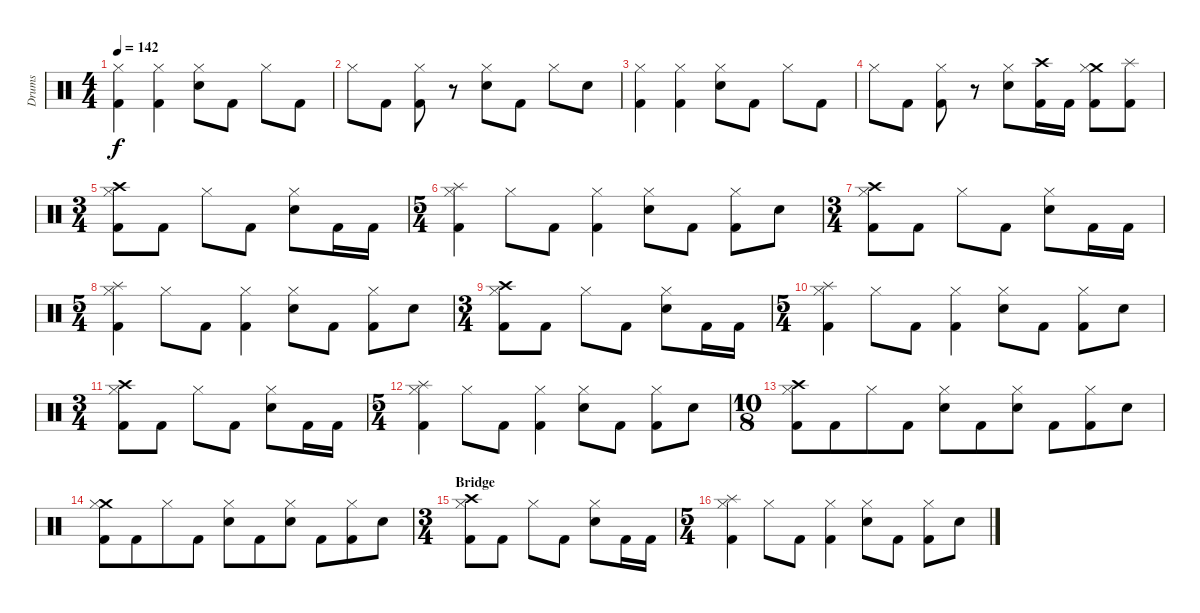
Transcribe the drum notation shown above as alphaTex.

\track ("Drums" "Drums") {instrument percussion}
\staff {score}
\articulation defaults
\ts (4 4)
\tempo 142
\clef neutral
\ks c
("Hi-Hat (closed)" "Kick (hit) 2").4{dy f} ("Hi-Hat (closed)" "Kick (hit) 2").4 ("Hi-Hat (closed)" "Electric Snare (hit)").8 "Kick (hit) 2".8 "Hi-Hat (closed)".8 "Kick (hit) 2".8 |
"Hi-Hat (closed)".8 "Kick (hit) 2".8 ("Hi-Hat (closed)" "Kick (hit) 2").8 r.8 ("Hi-Hat (closed)" "Electric Snare (hit)").8 "Kick (hit) 2".8 "Hi-Hat (closed)".8 "Electric Snare (hit)".8 |
("Hi-Hat (closed)" "Kick (hit) 2").4 ("Hi-Hat (closed)" "Kick (hit) 2").4 ("Hi-Hat (closed)" "Electric Snare (hit)").8 "Kick (hit) 2".8 "Hi-Hat (closed)".8 "Kick (hit) 2".8 |
"Hi-Hat (closed)".8 "Kick (hit) 2".8 ("Hi-Hat (closed)" "Kick (hit) 2").8 r.8 ("Hi-Hat (closed)" "Electric Snare (hit)").8 ("Crash high (hit)" "Kick (hit) 2").16 "Kick (hit) 2".16 ("Crash medium (hit)" "Hi-Hat (closed)" "Kick (hit) 2").8 ("Splash (hit)" "Kick (hit) 2").8 |
\ts (3 4)
("Crash high (hit)" "Hi-Hat (closed)" "Kick (hit) 2").8 "Kick (hit) 2".8 "Hi-Hat (closed)".8 "Kick (hit) 2".8 ("Hi-Hat (closed)" "Electric Snare (hit)").8 "Kick (hit) 2".16 "Kick (hit) 2".16 |
\ts (5 4)
("Splash (hit)" "Hi-Hat (closed)" "Kick (hit) 2").4 "Hi-Hat (closed)".8 "Kick (hit) 2".8 ("Hi-Hat (closed)" "Kick (hit) 2").4 ("Hi-Hat (closed)" "Electric Snare (hit)").8 "Kick (hit) 2".8 ("Hi-Hat (closed)" "Kick (hit) 2").8 "Electric Snare (hit)".8 |
\ts (3 4)
("Crash high (hit)" "Hi-Hat (closed)" "Kick (hit) 2").8 "Kick (hit) 2".8 "Hi-Hat (closed)".8 "Kick (hit) 2".8 ("Hi-Hat (closed)" "Electric Snare (hit)").8 "Kick (hit) 2".16 "Kick (hit) 2".16 |
\ts (5 4)
("Splash (hit)" "Hi-Hat (closed)" "Kick (hit) 2").4 "Hi-Hat (closed)".8 "Kick (hit) 2".8 ("Hi-Hat (closed)" "Kick (hit) 2").4 ("Hi-Hat (closed)" "Electric Snare (hit)").8 "Kick (hit) 2".8 ("Hi-Hat (closed)" "Kick (hit) 2").8 "Electric Snare (hit)".8 |
\ts (3 4)
("Crash high (hit)" "Hi-Hat (closed)" "Kick (hit) 2").8 "Kick (hit) 2".8 "Hi-Hat (closed)".8 "Kick (hit) 2".8 ("Hi-Hat (closed)" "Electric Snare (hit)").8 "Kick (hit) 2".16 "Kick (hit) 2".16 |
\ts (5 4)
("Splash (hit)" "Hi-Hat (closed)" "Kick (hit) 2").4 "Hi-Hat (closed)".8 "Kick (hit) 2".8 ("Hi-Hat (closed)" "Kick (hit) 2").4 ("Hi-Hat (closed)" "Electric Snare (hit)").8 "Kick (hit) 2".8 ("Hi-Hat (closed)" "Kick (hit) 2").8 "Electric Snare (hit)".8 |
\ts (3 4)
("Crash high (hit)" "Hi-Hat (closed)" "Kick (hit) 2").8 "Kick (hit) 2".8 "Hi-Hat (closed)".8 "Kick (hit) 2".8 ("Hi-Hat (closed)" "Electric Snare (hit)").8 "Kick (hit) 2".16 "Kick (hit) 2".16 |
\ts (5 4)
("Splash (hit)" "Hi-Hat (closed)" "Kick (hit) 2").4 "Hi-Hat (closed)".8 "Kick (hit) 2".8 ("Hi-Hat (closed)" "Kick (hit) 2").4 ("Hi-Hat (closed)" "Electric Snare (hit)").8 "Kick (hit) 2".8 ("Hi-Hat (closed)" "Kick (hit) 2").8 "Electric Snare (hit)".8 |
\ts (10 8)
("Crash high (hit)" "Hi-Hat (closed)" "Kick (hit) 2").8 "Kick (hit) 2".8 "Hi-Hat (closed)".8 "Kick (hit) 2".8 ("Hi-Hat (closed)" "Electric Snare (hit)").8 "Kick (hit) 2".8 ("Hi-Hat (closed)" "Electric Snare (hit)").8 "Kick (hit) 2".8 ("Hi-Hat (closed)" "Kick (hit) 2").8 "Electric Snare (hit)".8 |
("Crash medium (hit)" "Hi-Hat (closed)" "Kick (hit) 2").8 "Kick (hit) 2".8 "Hi-Hat (closed)".8 "Kick (hit) 2".8 ("Hi-Hat (closed)" "Electric Snare (hit)").8 "Kick (hit) 2".8 ("Hi-Hat (closed)" "Electric Snare (hit)").8 "Kick (hit) 2".8 ("Hi-Hat (closed)" "Kick (hit) 2").8 "Electric Snare (hit)".8 |
\ts (3 4)
\section ("" "Bridge")
("Crash high (hit)" "Hi-Hat (closed)" "Kick (hit) 2").8 "Kick (hit) 2".8 "Hi-Hat (closed)".8 "Kick (hit) 2".8 ("Hi-Hat (closed)" "Electric Snare (hit)").8 "Kick (hit) 2".16 "Kick (hit) 2".16 |
\ts (5 4)
("Splash (hit)" "Hi-Hat (closed)" "Kick (hit) 2").4 "Hi-Hat (closed)".8 "Kick (hit) 2".8 ("Hi-Hat (closed)" "Kick (hit) 2").4 ("Hi-Hat (closed)" "Electric Snare (hit)").8 "Kick (hit) 2".8 ("Hi-Hat (closed)" "Kick (hit) 2").8 "Electric Snare (hit)".8
